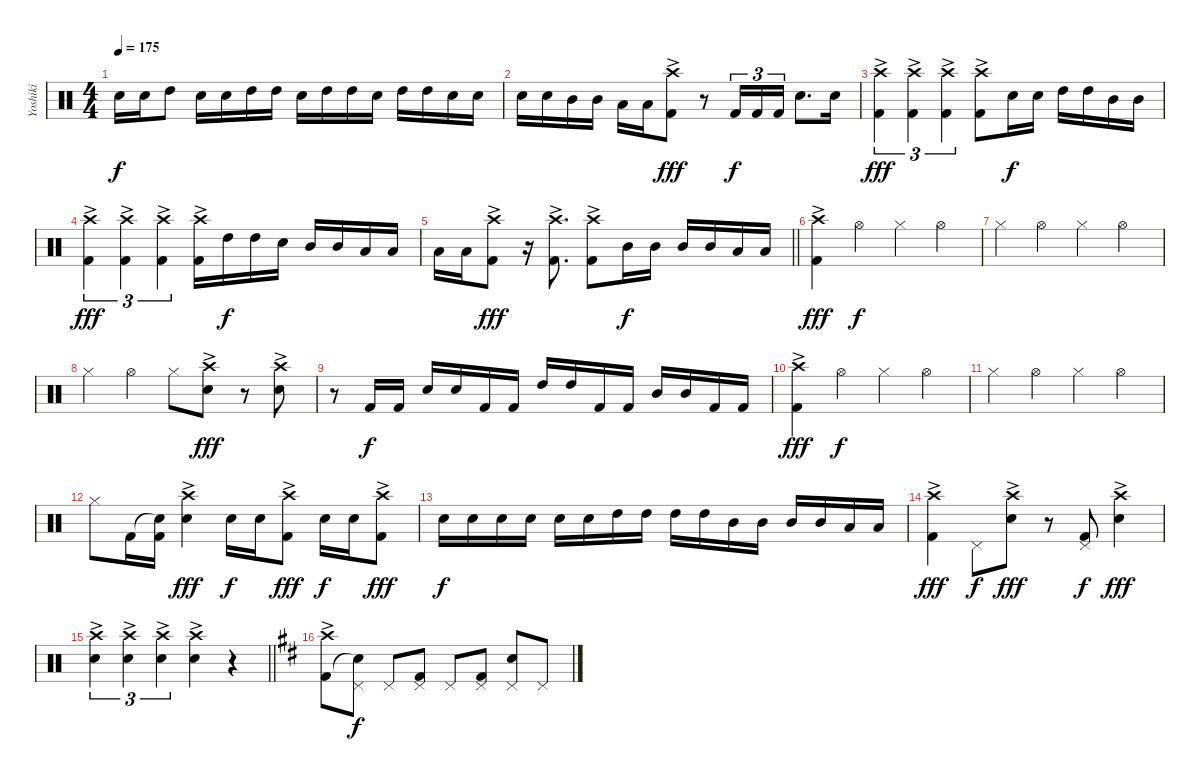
\track ("Yoshiki" "Yoshiki") {instrument percussion}
\staff {score}
\articulation defaults
\ts (4 4)
\tempo 175
\clef neutral
\ks c "Snare (hit) 2".16{dy f} "Snare (hit) 2".16 "High Tom (hit)".8 "Snare (hit) 2".16 "Snare (hit) 2".16 "High Tom (hit)".16 "High Tom (hit)".16 "Snare (hit) 2".16 "High Tom (hit)".16 "High Tom (hit)".16 "Snare (hit) 2".16 "High Tom (hit)".16 "High Tom (hit)".16 "Snare (hit) 2".16 "Snare (hit) 2".16
|
"Snare (hit) 2".16 "Snare (hit) 2".16 "Mid Tom (hit)".16 "Mid Tom (hit)".16 "Low Tom (hit)".16 "Low Tom (hit)".16 ("Crash high (hit)"{ac} "Kick (hit) 2"{ac}).8{dy fff} r.8 "Kick (hit) 2".16{tu (3 2) dy f} "Kick (hit) 2".16{tu (3 2)} "Kick (hit) 2".16{tu (3 2)} "Snare (hit) 2".8{d} "Snare (hit) 2".16 |
("Crash high (hit)"{ac} "Kick (hit) 2"{ac}).4{tu (3 2) dy fff} ("Crash high (hit)"{ac} "Kick (hit) 2"{ac}).4{tu (3 2)} ("Crash high (hit)"{ac} "Kick (hit) 2"{ac}).4{tu (3 2)} ("Crash high (hit)"{ac} "Kick (hit) 2"{ac}).8 "Snare (hit) 2".16{dy f} "Snare (hit) 2".16 "High Tom (hit)".16 "High Tom (hit)".16 "Mid Tom (hit)".16 "Mid Tom (hit)".16 |
("Crash high (hit)"{ac} "Kick (hit) 2"{ac}).4{tu (3 2) dy fff} ("Crash high (hit)"{ac} "Kick (hit) 2"{ac}).4{tu (3 2)} ("Crash high (hit)"{ac} "Kick (hit) 2"{ac}).4{tu (3 2)} ("Crash high (hit)"{ac} "Kick (hit) 2"{ac}).16 "High Tom (hit)".16{dy f} "High Tom (hit)".16 "Snare (hit) 2".16 "Mid Tom (hit)".16 "Mid Tom (hit)".16 "Low Tom (hit)".16 "Low Tom (hit)".16 |
\barLineRight lightlight "Low Tom (hit)".16 "Low Tom (hit)".16
("Crash high (hit)"{ac} "Kick (hit) 2"{ac}).8{dy fff} r.16 ("Crash high (hit)"{ac} "Kick (hit) 2"{ac}).8{d} ("Crash high (hit)"{ac} "Kick (hit) 2"{ac}).8 "Mid Tom (hit)".16{dy f} "Mid Tom (hit)".16 "Mid Tom (hit)".16 "Mid Tom (hit)".16 "Low Tom (hit)".16 "Low Tom (hit)".16 |
("Crash high (hit)"{ac} "Kick (hit) 2"{ac}).4{dy fff} "Hi-Hat (open)".4{dy f} "Hi-Hat (closed)".4 "Hi-Hat (open)".4 |
"Hi-Hat (closed)".4 "Hi-Hat (open)".4 "Hi-Hat (closed)".4 "Hi-Hat (open)".4 |
"Hi-Hat (closed)".4 "Hi-Hat (open)".4 "Hi-Hat (closed)".8 ("Crash high (hit)"{ac} "Snare (hit) 2"{ac}).8{dy fff} r.8 ("Crash high (hit)"{ac} "Snare (hit) 2"{ac}).8 |
r.8 "Kick (hit) 2".16{dy f} "Kick (hit) 2".16 "Snare (hit) 2".16 "Snare (hit) 2".16 "Kick (hit) 2".16 "Kick (hit) 2".16 "High Tom (hit)".16 "High Tom (hit)".16 "Kick (hit) 2".16 "Kick (hit) 2".16 "Mid Tom (hit)".16 "Mid Tom (hit)".16 "Kick (hit) 2".16 "Kick (hit) 2".16 |
("Crash high (hit)"{ac} "Kick (hit) 2"{ac}).4{dy fff} "Hi-Hat (open)".4{dy f} "Hi-Hat (closed)".4 "Hi-Hat (open)".4 |
"Hi-Hat (closed)".4 "Hi-Hat (open)".4 "Hi-Hat (closed)".4 "Hi-Hat (open)".4 |
"Hi-Hat (closed)".8 "Kick (hit) 2".16 ("Snare (hit)"{t} "Kick (hit) 2").16 ("Crash high (hit)"{ac} "Snare (hit) 2"{ac}).4{dy fff} "Snare (hit) 2".16{dy f} "Snare (hit) 2".16 ("Crash high (hit)"{ac} "Kick (hit) 2"{ac}).8{dy fff} "Snare (hit) 2".16{dy f} "Snare (hit) 2".16 ("Crash high (hit)"{ac} "Kick (hit) 2"{ac}).8{dy fff} |
"Snare (hit) 2".16{dy f} "Snare (hit) 2".16 "Snare (hit) 2".16 "Snare (hit) 2".16 "Snare (hit) 2".16 "Snare (hit) 2".16 "High Tom (hit)".16 "High Tom (hit)".16 "High Tom (hit)".16 "High Tom (hit)".16 "Mid Tom (hit)".16 "Mid Tom (hit)".16 "Mid Tom (hit)".16 "Mid Tom (hit)".16 "Low Tom (hit)".16 "Low Tom (hit)".16 |
("Crash high (hit)"{ac} "Kick (hit) 2"{ac}).4{dy fff} "Pedal Hi-Hat (hit)".8{dy f} ("Crash high (hit)"{ac} "Snare (hit) 2"{ac}).8{dy fff} r.8 ("Pedal Hi-Hat (hit)" "Kick (hit) 2").8{dy f} ("Crash high (hit)"{ac} "Snare (hit) 2"{ac}).4{dy fff} |
\barLineRight lightlight
("Crash high (hit)"{ac} "Snare (hit) 2"{ac}).4{tu (3 2)} ("Crash high (hit)"{ac} "Snare (hit) 2"{ac}).4{tu (3 2)} ("Crash high (hit)"{ac} "Snare (hit) 2"{ac}).4{tu (3 2)} ("Crash high (hit)"{ac} "Snare (hit) 2"{ac}).4 r.4 |
\ks d
("Crash high (hit)"{ac} "Kick (hit) 2"{ac}).8 ("Pedal Hi-Hat (hit)" "Snare (hit)"{t}).8{dy f} "Pedal Hi-Hat (hit)".8 ("Pedal Hi-Hat (hit)" "Kick (hit) 2").8 "Pedal Hi-Hat (hit)".8 ("Pedal Hi-Hat (hit)" "Kick (hit) 2").8 ("Pedal Hi-Hat (hit)" "Snare (hit) 2").8 "Pedal Hi-Hat (hit)".8
